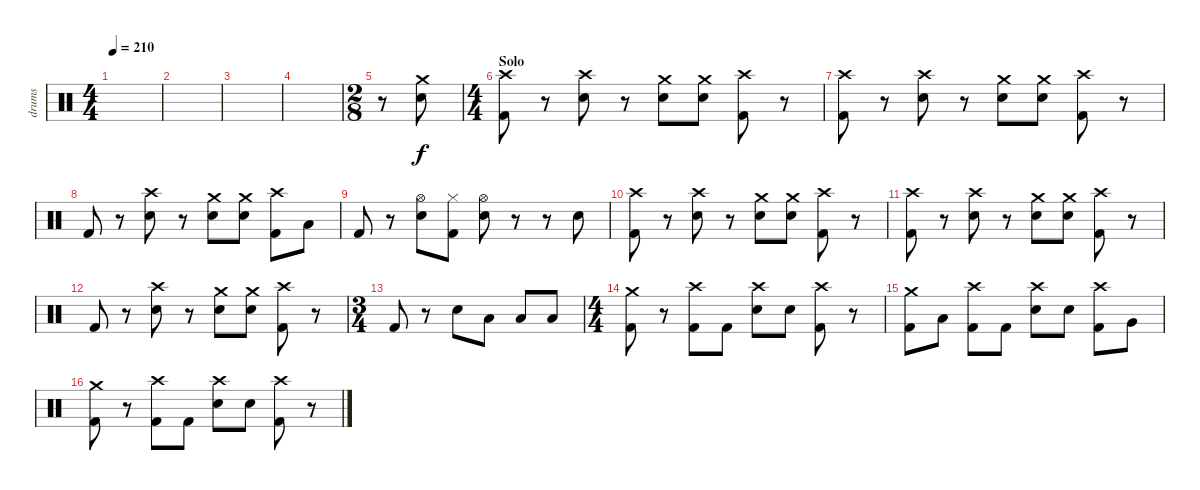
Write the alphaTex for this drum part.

\track ("drums" "drums") {instrument percussion}
\staff {score}
\articulation defaults
\ts (4 4)
\tempo 210
\clef neutral
\ks c
|
|
|
|
\ts (2 8)
r.8 ("Crash medium (hit)" "Electric Snare (hit)").8{dy f} |
\ts (4 4)
\section ("" "Solo")
("Crash high (hit)" "Kick (hit) 2").8 r.8 ("Crash high (hit)" "Electric Snare (hit)").8 r.8 ("Crash medium (hit)" "Electric Snare (hit)").8 ("Crash medium (hit)" "Electric Snare (hit)").8 ("Crash high (hit)" "Kick (hit) 2").8 r.8 |
("Crash high (hit)" "Kick (hit) 2").8 r.8 ("Crash high (hit)" "Electric Snare (hit)").8 r.8 ("Crash medium (hit)" "Electric Snare (hit)").8 ("Crash medium (hit)" "Electric Snare (hit)").8 ("Crash high (hit)" "Kick (hit) 2").8 r.8 |
"Kick (hit) 2".8 r.8 ("Crash high (hit)" "Electric Snare (hit)").8 r.8 ("Crash medium (hit)" "Electric Snare (hit)").8 ("Crash medium (hit)" "Electric Snare (hit)").8 ("Crash high (hit)" "Kick (hit) 2").8 "Low Tom (hit)".8 |
"Kick (hit) 2".8 r.8 ("Hi-Hat (open)" "Electric Snare (hit)").8 ("Hi-Hat (closed)" "Kick (hit) 2").8 ("Hi-Hat (open)" "Electric Snare (hit)").8 r.8 r.8 "Electric Snare (hit)".8 |
("Crash high (hit)" "Kick (hit) 2").8 r.8 ("Crash high (hit)" "Electric Snare (hit)").8 r.8 ("Crash medium (hit)" "Electric Snare (hit)").8 ("Crash medium (hit)" "Electric Snare (hit)").8 ("Crash high (hit)" "Kick (hit) 2").8 r.8 |
("Crash high (hit)" "Kick (hit) 2").8 r.8 ("Crash high (hit)" "Electric Snare (hit)").8 r.8 ("Crash medium (hit)" "Electric Snare (hit)").8 ("Crash medium (hit)" "Electric Snare (hit)").8 ("Crash high (hit)" "Kick (hit) 2").8 r.8 |
"Kick (hit) 2".8 r.8 ("Crash high (hit)" "Electric Snare (hit)").8 r.8 ("Crash medium (hit)" "Electric Snare (hit)").8 ("Crash medium (hit)" "Electric Snare (hit)").8 ("Crash high (hit)" "Kick (hit) 2").8 r.8 |
\ts (3 4)
"Kick (hit) 2".8 r.8 "Electric Snare (hit)".8 "Low Tom (hit)".8 "Low Tom (hit)".8 "Low Tom (hit)".8 |
\ts (4 4)
("Crash medium (hit)" "Kick (hit) 2").8 r.8 ("Crash high (hit)" "Kick (hit) 2").8 "Kick (hit) 2".8 ("Crash high (hit)" "Electric Snare (hit)").8 "Electric Snare (hit)".8 ("Crash high (hit)" "Kick (hit) 2").8 r.8 |
("Crash medium (hit)" "Kick (hit) 2").8 "Low Tom (hit)".8 ("Crash high (hit)" "Kick (hit) 2").8 "Kick (hit) 2".8 ("Crash high (hit)" "Electric Snare (hit)").8 "Electric Snare (hit)".8 ("Crash high (hit)" "Kick (hit) 2").8 "Very Low Tom (hit)".8 |
("Crash medium (hit)" "Kick (hit) 2").8 r.8 ("Crash high (hit)" "Kick (hit) 2").8 "Kick (hit) 2".8 ("Crash high (hit)" "Electric Snare (hit)").8 "Electric Snare (hit)".8 ("Crash high (hit)" "Kick (hit) 2").8 r.8
